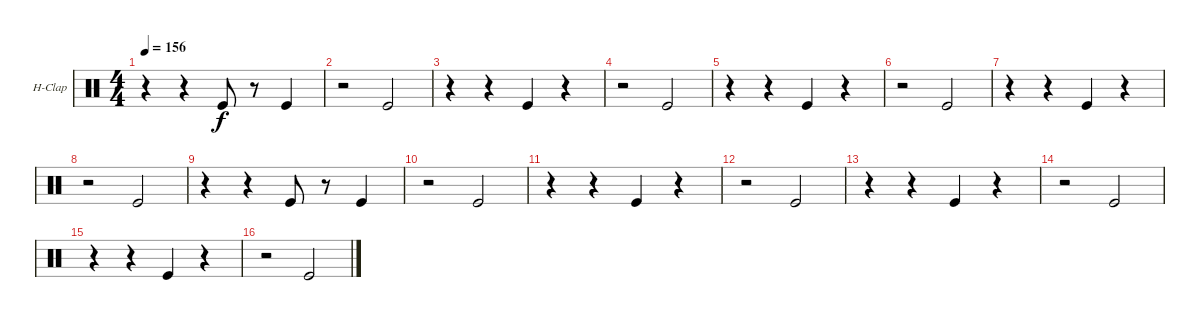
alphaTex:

\defaultSystemsLayout 4
\bracketExtendMode groupsimilarinstruments
\firstSystemTrackNameOrientation horizontal
\otherSystemsTrackNameOrientation horizontal
\track ("Hand Clap" "H-Clap") {instrument percussion}
\staff {score}
\articulation defaults
\ts (4 4)
\tempo 156
\clef neutral
\scale
0.333333
\ks c
r.4{dy f} r.4 "Kick (hit)".8 r.8 "Kick (hit)".4 |
\scale
0.333333 r.2 "Kick (hit)".2 |
\scale
0.333333 r.4 r.4 "Kick (hit)".4 r.4 |
\scale
0.333333 r.2 "Kick (hit)".2 |
\scale
0.333333 r.4 r.4 "Kick (hit)".4 r.4 |
\scale
0.333333 r.2 "Kick (hit)".2 |
\scale
0.333333 r.4 r.4 "Kick (hit)".4 r.4 |
\scale
0.333333 r.2 "Kick (hit)".2 |
\scale
0.333333 r.4 r.4 "Kick (hit)".8 r.8 "Kick (hit)".4 |
\scale
0.333333 r.2 "Kick (hit)".2 |
\scale
0.333333 r.4 r.4 "Kick (hit)".4 r.4 |
\scale
0.333333 r.2 "Kick (hit)".2 |
\scale
0.333333 r.4 r.4 "Kick (hit)".4 r.4 |
\scale
0.333333 r.2 "Kick (hit)".2 |
\scale
0.333333 r.4 r.4 "Kick (hit)".4 r.4 |
\scale
0.333333 r.2 "Kick (hit)".2
